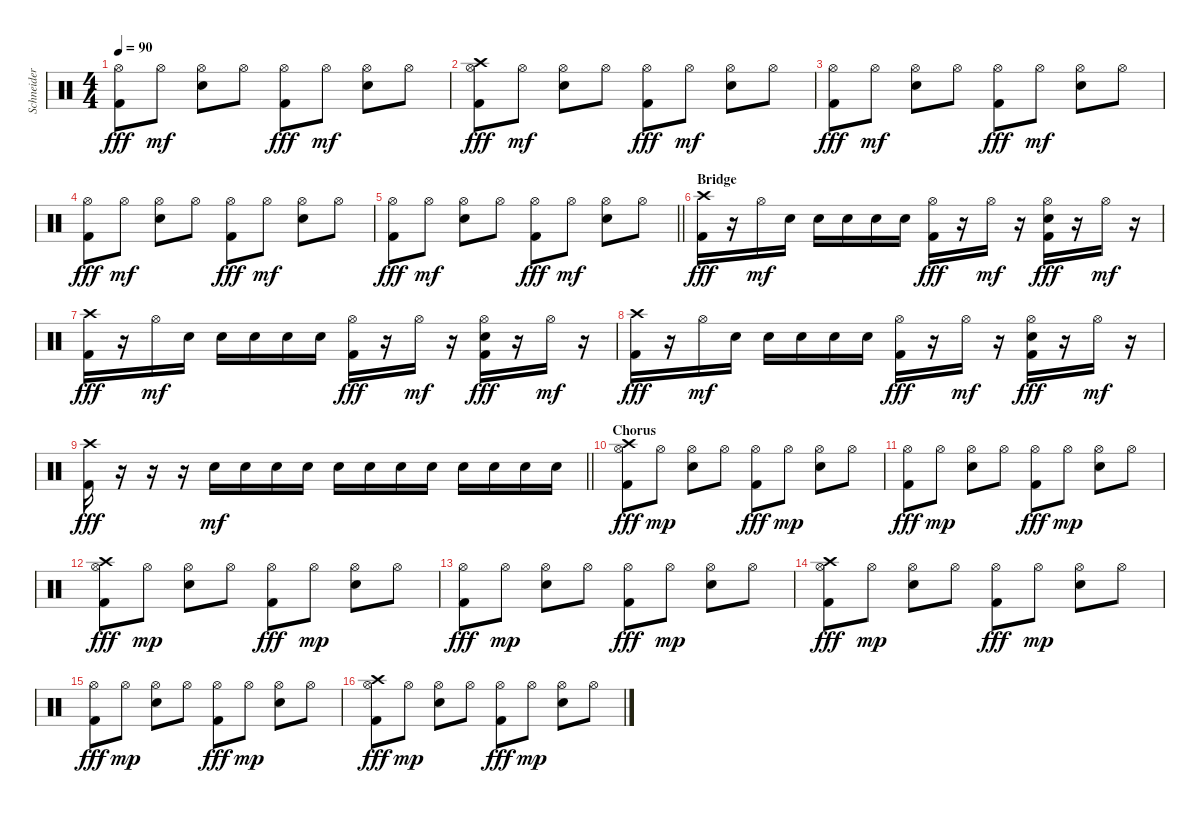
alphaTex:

\track ("Schneider" "Schneider") {instrument percussion}
\staff {score}
\articulation defaults
\ts (4 4)
\tempo 90
\clef neutral
\ks c
("Hi-Hat (open)" "Kick (hit) 2").8{dy fff} "Hi-Hat (open)".8{dy mf} ("Hi-Hat (open)" "Electric Snare (hit)").8 "Hi-Hat (open)".8 ("Hi-Hat (open)" "Kick (hit) 2").8{dy fff} "Hi-Hat (open)".8{dy mf} ("Hi-Hat (open)" "Electric Snare (hit)").8 "Hi-Hat (open)".8 |
("Crash high (hit)" "Hi-Hat (open)" "Kick (hit) 2").8{dy fff} "Hi-Hat (open)".8{dy mf} ("Hi-Hat (open)" "Electric Snare (hit)").8 "Hi-Hat (open)".8 ("Hi-Hat (open)" "Kick (hit) 2").8{dy fff} "Hi-Hat (open)".8{dy mf} ("Hi-Hat (open)" "Electric Snare (hit)").8 "Hi-Hat (open)".8 |
("Hi-Hat (open)" "Kick (hit) 2").8{dy fff} "Hi-Hat (open)".8{dy mf} ("Hi-Hat (open)" "Electric Snare (hit)").8 "Hi-Hat (open)".8 ("Hi-Hat (open)" "Kick (hit) 2").8{dy fff} "Hi-Hat (open)".8{dy mf} ("Hi-Hat (open)" "Electric Snare (hit)").8 "Hi-Hat (open)".8 |
("Hi-Hat (open)" "Kick (hit) 2").8{dy fff} "Hi-Hat (open)".8{dy mf} ("Hi-Hat (open)" "Electric Snare (hit)").8 "Hi-Hat (open)".8 ("Hi-Hat (open)" "Kick (hit) 2").8{dy fff} "Hi-Hat (open)".8{dy mf} ("Hi-Hat (open)" "Electric Snare (hit)").8 "Hi-Hat (open)".8 |
\barLineRight lightlight
("Hi-Hat (open)" "Kick (hit) 2").8{dy fff} "Hi-Hat (open)".8{dy mf} ("Hi-Hat (open)" "Electric Snare (hit)").8 "Hi-Hat (open)".8 ("Hi-Hat (open)" "Kick (hit) 2").8{dy fff} "Hi-Hat (open)".8{dy mf} ("Hi-Hat (open)" "Electric Snare (hit)").8 "Hi-Hat (open)".8 |
\section ("" "Bridge")
("Crash high (hit)" "Kick (hit) 2").16{dy fff} r.16 "Hi-Hat (open)".16{dy mf} "Electric Snare (hit)".16 "Electric Snare (hit)".16 "Electric Snare (hit)".16 "Electric Snare (hit)".16 "Electric Snare (hit)".16 ("Hi-Hat (open)" "Kick (hit) 2").16{dy fff} r.16 "Hi-Hat (open)".16{dy mf} r.16 ("Hi-Hat (open)" "Electric Snare (hit)" "Kick (hit) 2").16{dy fff} r.16 "Hi-Hat (open)".16{dy mf} r.16 |
("Crash high (hit)" "Kick (hit) 2").16{dy fff} r.16 "Hi-Hat (open)".16{dy mf} "Electric Snare (hit)".16 "Electric Snare (hit)".16 "Electric Snare (hit)".16 "Electric Snare (hit)".16 "Electric Snare (hit)".16 ("Hi-Hat (open)" "Kick (hit) 2").16{dy fff} r.16 "Hi-Hat (open)".16{dy mf} r.16 ("Hi-Hat (open)" "Electric Snare (hit)" "Kick (hit) 2").16{dy fff} r.16 "Hi-Hat (open)".16{dy mf} r.16 |
("Crash high (hit)" "Kick (hit) 2").16{dy fff} r.16 "Hi-Hat (open)".16{dy mf} "Electric Snare (hit)".16 "Electric Snare (hit)".16 "Electric Snare (hit)".16 "Electric Snare (hit)".16 "Electric Snare (hit)".16 ("Hi-Hat (open)" "Kick (hit) 2").16{dy fff} r.16 "Hi-Hat (open)".16{dy mf} r.16 ("Hi-Hat (open)" "Electric Snare (hit)" "Kick (hit) 2").16{dy fff} r.16 "Hi-Hat (open)".16{dy mf} r.16 |
\barLineRight lightlight
("Crash high (hit)" "Kick (hit) 2").16{dy fff} r.16 r.16 r.16 "Electric Snare (hit)".16{dy mf} "Electric Snare (hit)".16 "Electric Snare (hit)".16 "Electric Snare (hit)".16 "Electric Snare (hit)".16 "Electric Snare (hit)".16 "Electric Snare (hit)".16 "Electric Snare (hit)".16 "Electric Snare (hit)".16 "Electric Snare (hit)".16 "Electric Snare (hit)".16 "Electric Snare (hit)".16 |
\section ("" "Chorus")
("Crash high (hit)" "Hi-Hat (open)" "Kick (hit) 2").8{dy fff} "Hi-Hat (open)".8{dy mp} ("Hi-Hat (open)" "Electric Snare (hit)").8 "Hi-Hat (open)".8 ("Hi-Hat (open)" "Kick (hit) 2").8{dy fff} "Hi-Hat (open)".8{dy mp} ("Hi-Hat (open)" "Electric Snare (hit)").8 "Hi-Hat (open)".8 |
("Hi-Hat (open)" "Kick (hit) 2").8{dy fff} "Hi-Hat (open)".8{dy mp} ("Hi-Hat (open)" "Electric Snare (hit)").8 "Hi-Hat (open)".8 ("Hi-Hat (open)" "Kick (hit) 2").8{dy fff} "Hi-Hat (open)".8{dy mp} ("Hi-Hat (open)" "Electric Snare (hit)").8 "Hi-Hat (open)".8 |
("Crash high (hit)" "Hi-Hat (open)" "Kick (hit) 2").8{dy fff} "Hi-Hat (open)".8{dy mp} ("Hi-Hat (open)" "Electric Snare (hit)").8 "Hi-Hat (open)".8 ("Hi-Hat (open)" "Kick (hit) 2").8{dy fff} "Hi-Hat (open)".8{dy mp} ("Hi-Hat (open)" "Electric Snare (hit)").8 "Hi-Hat (open)".8 |
("Hi-Hat (open)" "Kick (hit) 2").8{dy fff} "Hi-Hat (open)".8{dy mp} ("Hi-Hat (open)" "Electric Snare (hit)").8 "Hi-Hat (open)".8 ("Hi-Hat (open)" "Kick (hit) 2").8{dy fff} "Hi-Hat (open)".8{dy mp} ("Hi-Hat (open)" "Electric Snare (hit)").8 "Hi-Hat (open)".8 |
("Crash high (hit)" "Hi-Hat (open)" "Kick (hit) 2").8{dy fff} "Hi-Hat (open)".8{dy mp} ("Hi-Hat (open)" "Electric Snare (hit)").8 "Hi-Hat (open)".8 ("Hi-Hat (open)" "Kick (hit) 2").8{dy fff} "Hi-Hat (open)".8{dy mp} ("Hi-Hat (open)" "Electric Snare (hit)").8 "Hi-Hat (open)".8 |
("Hi-Hat (open)" "Kick (hit) 2").8{dy fff} "Hi-Hat (open)".8{dy mp} ("Hi-Hat (open)" "Electric Snare (hit)").8 "Hi-Hat (open)".8 ("Hi-Hat (open)" "Kick (hit) 2").8{dy fff} "Hi-Hat (open)".8{dy mp} ("Hi-Hat (open)" "Electric Snare (hit)").8 "Hi-Hat (open)".8 |
("Crash high (hit)" "Hi-Hat (open)" "Kick (hit) 2").8{dy fff} "Hi-Hat (open)".8{dy mp} ("Hi-Hat (open)" "Electric Snare (hit)").8 "Hi-Hat (open)".8 ("Hi-Hat (open)" "Kick (hit) 2").8{dy fff} "Hi-Hat (open)".8{dy mp} ("Hi-Hat (open)" "Electric Snare (hit)").8 "Hi-Hat (open)".8
